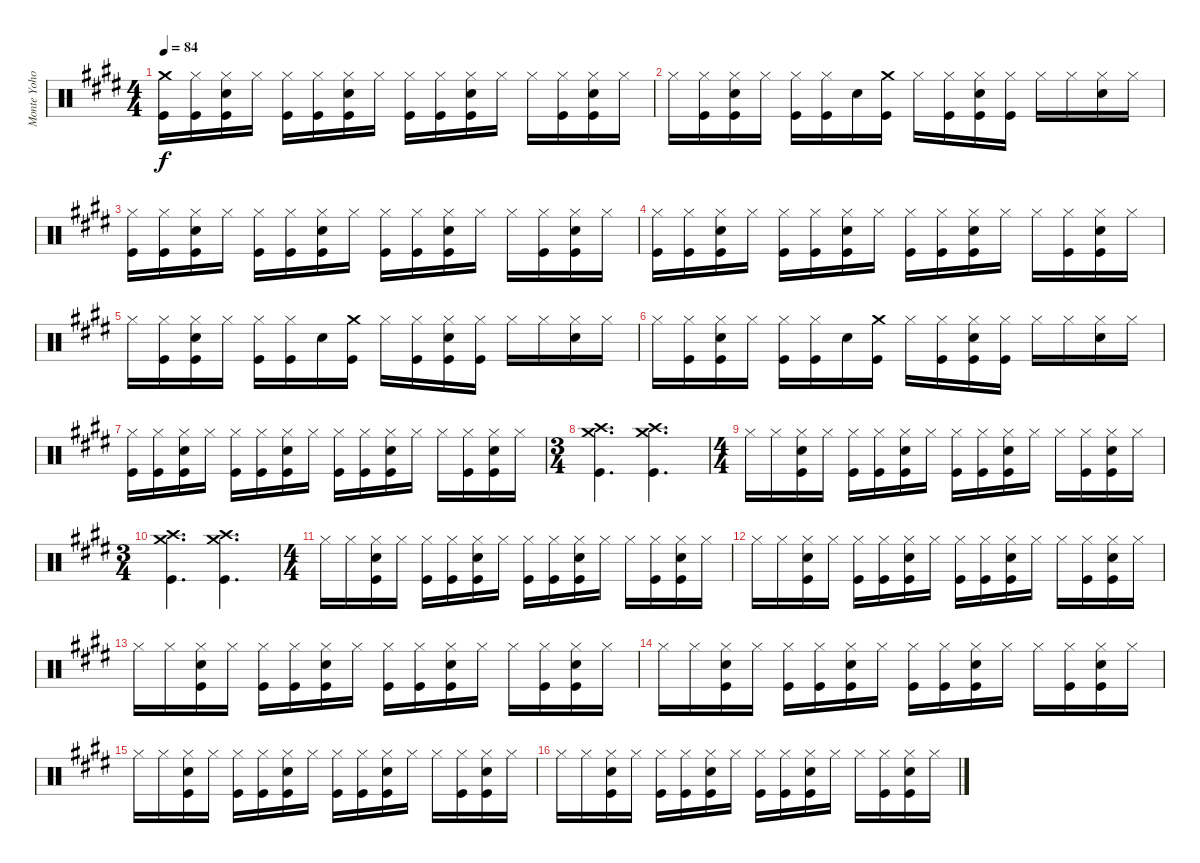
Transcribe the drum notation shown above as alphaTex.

\track ("Monte Yoho Drums" "Monte Yoho") {instrument percussion}
\staff {score}
\articulation defaults
\ts (4 4)
\tempo 84
\clef neutral
\ks e
("Crash medium (hit)" "Kick (hit)").16{dy f} ("Hi-Hat (closed)" "Kick (hit)").16 ("Hi-Hat (closed)" "Snare (hit) 2" "Kick (hit)").16 "Hi-Hat (closed)".16 ("Hi-Hat (closed)" "Kick (hit)").16 ("Hi-Hat (closed)" "Kick (hit)").16 ("Hi-Hat (closed)" "Snare (hit) 2" "Kick (hit)").16 "Hi-Hat (closed)".16 ("Hi-Hat (closed)" "Kick (hit)").16 ("Hi-Hat (closed)" "Kick (hit)").16 ("Hi-Hat (closed)" "Snare (hit) 2" "Kick (hit)").16 "Hi-Hat (closed)".16 "Hi-Hat (closed)".16 ("Hi-Hat (closed)" "Kick (hit)").16 ("Hi-Hat (closed)" "Snare (hit) 2" "Kick (hit)").16 "Hi-Hat (closed)".16 |
"Hi-Hat (closed)".16 ("Hi-Hat (closed)" "Kick (hit)").16 ("Hi-Hat (closed)" "Snare (hit) 2" "Kick (hit)").16 "Hi-Hat (closed)".16 ("Hi-Hat (closed)" "Kick (hit)").16 ("Hi-Hat (closed)" "Kick (hit)").16 "Snare (hit) 2".16 ("Crash medium (hit)" "Kick (hit)").16 "Hi-Hat (closed)".16 ("Hi-Hat (closed)" "Kick (hit)").16 ("Hi-Hat (closed)" "Snare (hit) 2" "Kick (hit)").16 ("Hi-Hat (closed)" "Kick (hit)").16 "Hi-Hat (closed)".16 "Hi-Hat (closed)".16 ("Hi-Hat (closed)" "Snare (hit) 2").16 "Hi-Hat (closed)".16 |
("Hi-Hat (closed)" "Kick (hit)").16 ("Hi-Hat (closed)" "Kick (hit)").16 ("Hi-Hat (closed)" "Snare (hit) 2" "Kick (hit)").16 "Hi-Hat (closed)".16 ("Hi-Hat (closed)" "Kick (hit)").16 ("Hi-Hat (closed)" "Kick (hit)").16 ("Hi-Hat (closed)" "Snare (hit) 2" "Kick (hit)").16 "Hi-Hat (closed)".16 ("Hi-Hat (closed)" "Kick (hit)").16 ("Hi-Hat (closed)" "Kick (hit)").16 ("Hi-Hat (closed)" "Snare (hit) 2" "Kick (hit)").16 "Hi-Hat (closed)".16 "Hi-Hat (closed)".16 ("Hi-Hat (closed)" "Kick (hit)").16 ("Hi-Hat (closed)" "Snare (hit) 2" "Kick (hit)").16 "Hi-Hat (closed)".16 |
("Hi-Hat (closed)" "Kick (hit)").16 ("Hi-Hat (closed)" "Kick (hit)").16 ("Hi-Hat (closed)" "Snare (hit) 2" "Kick (hit)").16 "Hi-Hat (closed)".16 ("Hi-Hat (closed)" "Kick (hit)").16 ("Hi-Hat (closed)" "Kick (hit)").16 ("Hi-Hat (closed)" "Snare (hit) 2" "Kick (hit)").16 "Hi-Hat (closed)".16 ("Hi-Hat (closed)" "Kick (hit)").16 ("Hi-Hat (closed)" "Kick (hit)").16 ("Hi-Hat (closed)" "Snare (hit) 2" "Kick (hit)").16 "Hi-Hat (closed)".16 "Hi-Hat (closed)".16 ("Hi-Hat (closed)" "Kick (hit)").16 ("Hi-Hat (closed)" "Snare (hit) 2" "Kick (hit)").16 "Hi-Hat (closed)".16 |
"Hi-Hat (closed)".16 ("Hi-Hat (closed)" "Kick (hit)").16 ("Hi-Hat (closed)" "Snare (hit) 2" "Kick (hit)").16 "Hi-Hat (closed)".16 ("Hi-Hat (closed)" "Kick (hit)").16 ("Hi-Hat (closed)" "Kick (hit)").16 "Snare (hit) 2".16 ("Crash medium (hit)" "Kick (hit)").16 "Hi-Hat (closed)".16 ("Hi-Hat (closed)" "Kick (hit)").16 ("Hi-Hat (closed)" "Snare (hit) 2" "Kick (hit)").16 ("Hi-Hat (closed)" "Kick (hit)").16 "Hi-Hat (closed)".16 "Hi-Hat (closed)".16 ("Hi-Hat (closed)" "Snare (hit) 2").16 "Hi-Hat (closed)".16 |
"Hi-Hat (closed)".16 ("Hi-Hat (closed)" "Kick (hit)").16 ("Hi-Hat (closed)" "Snare (hit) 2" "Kick (hit)").16 "Hi-Hat (closed)".16 ("Hi-Hat (closed)" "Kick (hit)").16 ("Hi-Hat (closed)" "Kick (hit)").16 "Snare (hit) 2".16 ("Crash medium (hit)" "Kick (hit)").16 "Hi-Hat (closed)".16 ("Hi-Hat (closed)" "Kick (hit)").16 ("Hi-Hat (closed)" "Snare (hit) 2" "Kick (hit)").16 ("Hi-Hat (closed)" "Kick (hit)").16 "Hi-Hat (closed)".16 "Hi-Hat (closed)".16 ("Hi-Hat (closed)" "Snare (hit) 2").16 "Hi-Hat (closed)".16 |
("Hi-Hat (closed)" "Kick (hit)").16 ("Hi-Hat (closed)" "Kick (hit)").16 ("Hi-Hat (closed)" "Snare (hit) 2" "Kick (hit)").16 "Hi-Hat (closed)".16 ("Hi-Hat (closed)" "Kick (hit)").16 ("Hi-Hat (closed)" "Kick (hit)").16 ("Hi-Hat (closed)" "Snare (hit) 2" "Kick (hit)").16 "Hi-Hat (closed)".16 ("Hi-Hat (closed)" "Kick (hit)").16 ("Hi-Hat (closed)" "Kick (hit)").16 ("Hi-Hat (closed)" "Snare (hit) 2" "Kick (hit)").16 "Hi-Hat (closed)".16 "Hi-Hat (closed)".16 ("Hi-Hat (closed)" "Kick (hit)").16 ("Hi-Hat (closed)" "Snare (hit) 2" "Kick (hit)").16 "Hi-Hat (closed)".16 |
\ts (3 4)
("Crash high (hit)" "Crash medium (hit)" "Kick (hit)").4{d} ("Crash high (hit)" "Crash medium (hit)" "Kick (hit)").4{d} |
\ts (4 4)
"Hi-Hat (closed)".16 "Hi-Hat (closed)".16 ("Hi-Hat (closed)" "Snare (hit) 2" "Kick (hit)").16 "Hi-Hat (closed)".16 ("Hi-Hat (closed)" "Kick (hit)").16 ("Hi-Hat (closed)" "Kick (hit)").16 ("Hi-Hat (closed)" "Snare (hit) 2" "Kick (hit)").16 "Hi-Hat (closed)".16 ("Hi-Hat (closed)" "Kick (hit)").16 ("Hi-Hat (closed)" "Kick (hit)").16 ("Hi-Hat (closed)" "Snare (hit) 2" "Kick (hit)").16 "Hi-Hat (closed)".16 "Hi-Hat (closed)".16 ("Hi-Hat (closed)" "Kick (hit)").16 ("Hi-Hat (closed)" "Snare (hit) 2" "Kick (hit)").16 "Hi-Hat (closed)".16 |
\ts (3 4)
("Crash high (hit)" "Crash medium (hit)" "Kick (hit)").4{d} ("Crash high (hit)" "Crash medium (hit)" "Kick (hit)").4{d} |
\ts (4 4)
"Hi-Hat (closed)".16 "Hi-Hat (closed)".16 ("Hi-Hat (closed)" "Snare (hit) 2" "Kick (hit)").16 "Hi-Hat (closed)".16 ("Hi-Hat (closed)" "Kick (hit)").16 ("Hi-Hat (closed)" "Kick (hit)").16 ("Hi-Hat (closed)" "Snare (hit) 2" "Kick (hit)").16 "Hi-Hat (closed)".16 ("Hi-Hat (closed)" "Kick (hit)").16 ("Hi-Hat (closed)" "Kick (hit)").16 ("Hi-Hat (closed)" "Snare (hit) 2" "Kick (hit)").16 "Hi-Hat (closed)".16 "Hi-Hat (closed)".16 ("Hi-Hat (closed)" "Kick (hit)").16 ("Hi-Hat (closed)" "Snare (hit) 2" "Kick (hit)").16 "Hi-Hat (closed)".16 |
"Hi-Hat (closed)".16 "Hi-Hat (closed)".16 ("Hi-Hat (closed)" "Snare (hit) 2" "Kick (hit)").16 "Hi-Hat (closed)".16 ("Hi-Hat (closed)" "Kick (hit)").16 ("Hi-Hat (closed)" "Kick (hit)").16 ("Hi-Hat (closed)" "Snare (hit) 2" "Kick (hit)").16 "Hi-Hat (closed)".16 ("Hi-Hat (closed)" "Kick (hit)").16 ("Hi-Hat (closed)" "Kick (hit)").16 ("Hi-Hat (closed)" "Snare (hit) 2" "Kick (hit)").16 "Hi-Hat (closed)".16 "Hi-Hat (closed)".16 ("Hi-Hat (closed)" "Kick (hit)").16 ("Hi-Hat (closed)" "Snare (hit) 2" "Kick (hit)").16 "Hi-Hat (closed)".16 |
"Hi-Hat (closed)".16 "Hi-Hat (closed)".16 ("Hi-Hat (closed)" "Snare (hit) 2" "Kick (hit)").16 "Hi-Hat (closed)".16 ("Hi-Hat (closed)" "Kick (hit)").16 ("Hi-Hat (closed)" "Kick (hit)").16 ("Hi-Hat (closed)" "Snare (hit) 2" "Kick (hit)").16 "Hi-Hat (closed)".16 ("Hi-Hat (closed)" "Kick (hit)").16 ("Hi-Hat (closed)" "Kick (hit)").16 ("Hi-Hat (closed)" "Snare (hit) 2" "Kick (hit)").16 "Hi-Hat (closed)".16 "Hi-Hat (closed)".16 ("Hi-Hat (closed)" "Kick (hit)").16 ("Hi-Hat (closed)" "Snare (hit) 2" "Kick (hit)").16 "Hi-Hat (closed)".16 |
"Hi-Hat (closed)".16 "Hi-Hat (closed)".16 ("Hi-Hat (closed)" "Snare (hit) 2" "Kick (hit)").16 "Hi-Hat (closed)".16 ("Hi-Hat (closed)" "Kick (hit)").16 ("Hi-Hat (closed)" "Kick (hit)").16 ("Hi-Hat (closed)" "Snare (hit) 2" "Kick (hit)").16 "Hi-Hat (closed)".16 ("Hi-Hat (closed)" "Kick (hit)").16 ("Hi-Hat (closed)" "Kick (hit)").16 ("Hi-Hat (closed)" "Snare (hit) 2" "Kick (hit)").16 "Hi-Hat (closed)".16 "Hi-Hat (closed)".16 ("Hi-Hat (closed)" "Kick (hit)").16 ("Hi-Hat (closed)" "Snare (hit) 2" "Kick (hit)").16 "Hi-Hat (closed)".16 |
"Hi-Hat (closed)".16 "Hi-Hat (closed)".16 ("Hi-Hat (closed)" "Snare (hit) 2" "Kick (hit)").16 "Hi-Hat (closed)".16 ("Hi-Hat (closed)" "Kick (hit)").16 ("Hi-Hat (closed)" "Kick (hit)").16 ("Hi-Hat (closed)" "Snare (hit) 2" "Kick (hit)").16 "Hi-Hat (closed)".16 ("Hi-Hat (closed)" "Kick (hit)").16 ("Hi-Hat (closed)" "Kick (hit)").16 ("Hi-Hat (closed)" "Snare (hit) 2" "Kick (hit)").16 "Hi-Hat (closed)".16 "Hi-Hat (closed)".16 ("Hi-Hat (closed)" "Kick (hit)").16 ("Hi-Hat (closed)" "Snare (hit) 2" "Kick (hit)").16 "Hi-Hat (closed)".16 |
"Hi-Hat (closed)".16 "Hi-Hat (closed)".16 ("Hi-Hat (closed)" "Snare (hit) 2" "Kick (hit)").16 "Hi-Hat (closed)".16 ("Hi-Hat (closed)" "Kick (hit)").16 ("Hi-Hat (closed)" "Kick (hit)").16 ("Hi-Hat (closed)" "Snare (hit) 2" "Kick (hit)").16 "Hi-Hat (closed)".16 ("Hi-Hat (closed)" "Kick (hit)").16 ("Hi-Hat (closed)" "Kick (hit)").16 ("Hi-Hat (closed)" "Snare (hit) 2" "Kick (hit)").16 "Hi-Hat (closed)".16 "Hi-Hat (closed)".16 ("Hi-Hat (closed)" "Kick (hit)").16 ("Hi-Hat (closed)" "Snare (hit) 2" "Kick (hit)").16 "Hi-Hat (closed)".16
